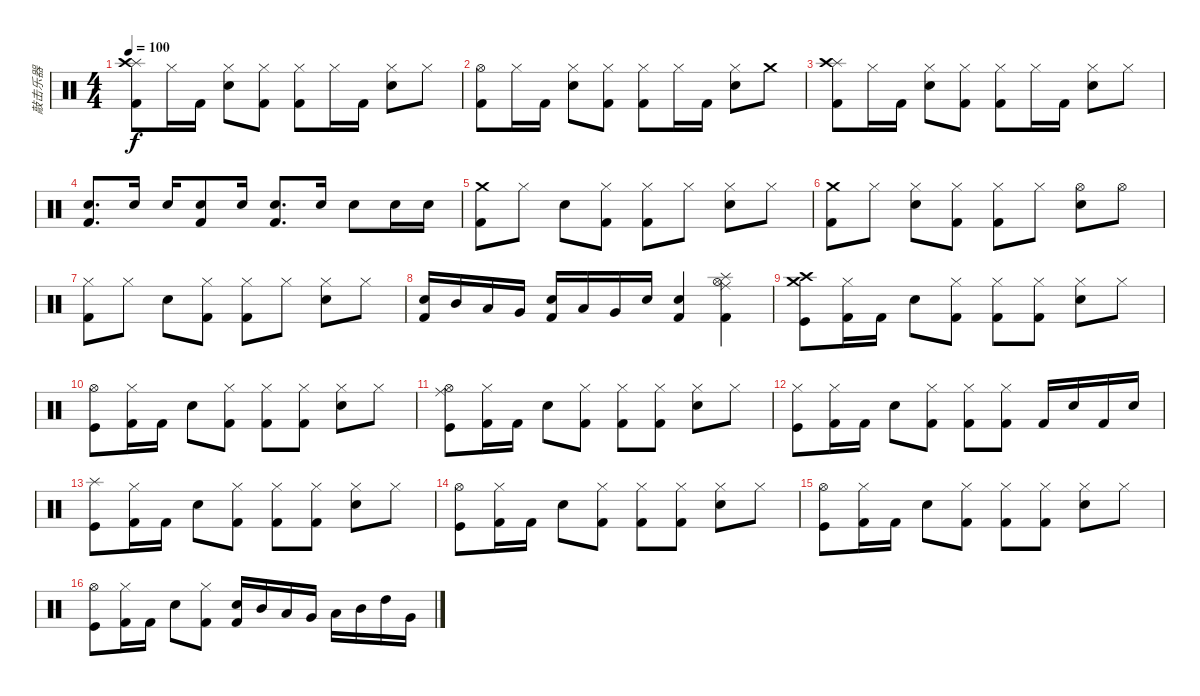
\track ("敲击乐器" "敲击乐器") {instrument percussion}
\staff {score}
\articulation defaults
\ts (4 4)
\tempo 100
\clef neutral
\ks c
("Splash (hit)" "Crash high (hit)" "Kick (hit) 2").8{dy f} "Hi-Hat (closed)".16 "Kick (hit) 2".16 ("Hi-Hat (closed)" "Electric Snare (hit)").8 ("Hi-Hat (closed)" "Kick (hit) 2").8 ("Hi-Hat (closed)" "Kick (hit) 2").8 "Hi-Hat (closed)".16 "Kick (hit) 2".16 ("Hi-Hat (closed)" "Electric Snare (hit)").8 "Hi-Hat (closed)".8 |
("Hi-Hat (open)" "Kick (hit) 2").8 "Hi-Hat (closed)".16 "Kick (hit) 2".16 ("Hi-Hat (closed)" "Electric Snare (hit)").8 ("Hi-Hat (closed)" "Kick (hit) 2").8 ("Hi-Hat (closed)" "Kick (hit) 2").8 "Hi-Hat (closed)".16 "Kick (hit) 2".16 ("Hi-Hat (closed)" "Electric Snare (hit)").8 "Crash medium (hit)".8 |
("Splash (hit)" "Crash high (hit)" "Kick (hit) 2").8 "Hi-Hat (closed)".16 "Kick (hit) 2".16 ("Hi-Hat (closed)" "Electric Snare (hit)").8 ("Hi-Hat (closed)" "Kick (hit) 2").8 ("Hi-Hat (closed)" "Kick (hit) 2").8 "Hi-Hat (closed)".16 "Kick (hit) 2".16 ("Hi-Hat (closed)" "Electric Snare (hit)").8 "Hi-Hat (closed)".8 |
("Electric Snare (hit)" "Kick (hit) 2").8{d} "Electric Snare (hit)".16 "Electric Snare (hit)".16 ("Electric Snare (hit)" "Kick (hit) 2").8 "Electric Snare (hit)".16 ("Electric Snare (hit)" "Kick (hit) 2").8{d} "Electric Snare (hit)".16 "Electric Snare (hit)".8 "Electric Snare (hit)".16 "Electric Snare (hit)".16 |
("Crash medium (hit)" "Kick (hit) 2").8 "Hi-Hat (closed)".8 "Electric Snare (hit)".8 ("Hi-Hat (closed)" "Kick (hit) 2").8 ("Hi-Hat (closed)" "Kick (hit) 2").8 "Hi-Hat (closed)".8 ("Hi-Hat (closed)" "Electric Snare (hit)").8 "Hi-Hat (closed)".8 |
("Crash medium (hit)" "Kick (hit) 2").8 "Hi-Hat (closed)".8 ("Hi-Hat (closed)" "Electric Snare (hit)").8 ("Hi-Hat (closed)" "Kick (hit) 2").8 ("Hi-Hat (closed)" "Kick (hit) 2").8 "Hi-Hat (closed)".8 ("Hi-Hat (open)" "Electric Snare (hit)").8 "Hi-Hat (open)".8 |
("Hi-Hat (closed)" "Kick (hit) 2").8 "Hi-Hat (closed)".8 "Electric Snare (hit)".8 ("Hi-Hat (closed)" "Kick (hit) 2").8 ("Hi-Hat (closed)" "Kick (hit) 2").8 "Hi-Hat (closed)".8 ("Hi-Hat (closed)" "Electric Snare (hit)").8 "Hi-Hat (closed)".8 |
("Electric Snare (hit)" "Kick (hit) 2").16 "Mid Tom (hit)".16 "Low Tom (hit)".16 "Very Low Tom (hit)".16 ("Electric Snare (hit)" "Kick (hit) 2").16 "Low Tom (hit)".16 "Very Low Tom (hit)".16 "Electric Snare (hit)".16 ("Electric Snare (hit)" "Kick (hit) 2").4 ("Splash (hit)" "Ride (middle)" "Hi-Hat (open)" "Kick (hit) 2").4 |
("Crash medium (hit)" "Crash high (hit)" "Kick (hit)").8 ("Hi-Hat (closed)" "Kick (hit) 2").16 "Kick (hit) 2".16 "Electric Snare (hit)".8 ("Hi-Hat (closed)" "Kick (hit) 2").8 ("Hi-Hat (closed)" "Kick (hit) 2").8 ("Hi-Hat (closed)" "Kick (hit) 2").8 ("Hi-Hat (closed)" "Electric Snare (hit)").8 "Hi-Hat (closed)".8 |
("Hi-Hat (open)" "Kick (hit)").8 ("Hi-Hat (closed)" "Kick (hit) 2").16 "Kick (hit) 2".16 "Electric Snare (hit)".8 ("Hi-Hat (closed)" "Kick (hit) 2").8 ("Hi-Hat (closed)" "Kick (hit) 2").8 ("Hi-Hat (closed)" "Kick (hit) 2").8 ("Hi-Hat (closed)" "Electric Snare (hit)").8 "Hi-Hat (closed)".8 |
("Ride (middle)" "Hi-Hat (open)" "Kick (hit)").8 ("Hi-Hat (closed)" "Kick (hit) 2").16 "Kick (hit) 2".16 "Electric Snare (hit)".8 ("Hi-Hat (closed)" "Kick (hit) 2").8 ("Hi-Hat (closed)" "Kick (hit) 2").8 ("Hi-Hat (closed)" "Kick (hit) 2").8 ("Hi-Hat (closed)" "Electric Snare (hit)").8 "Hi-Hat (closed)".8 |
("Hi-Hat (closed)" "Kick (hit)").8 ("Hi-Hat (closed)" "Kick (hit) 2").16 "Kick (hit) 2".16 "Electric Snare (hit)".8 ("Hi-Hat (closed)" "Kick (hit) 2").8 ("Hi-Hat (closed)" "Kick (hit) 2").8 ("Hi-Hat (closed)" "Kick (hit) 2").8 "Kick (hit) 2".16 "Electric Snare (hit)".16 "Kick (hit) 2".16 "Electric Snare (hit)".16 |
("Splash (hit)" "Kick (hit)").8 ("Hi-Hat (closed)" "Kick (hit) 2").16 "Kick (hit) 2".16 "Electric Snare (hit)".8 ("Hi-Hat (closed)" "Kick (hit) 2").8 ("Hi-Hat (closed)" "Kick (hit) 2").8 ("Hi-Hat (closed)" "Kick (hit) 2").8 ("Hi-Hat (closed)" "Electric Snare (hit)").8 "Hi-Hat (closed)".8 |
("Hi-Hat (open)" "Kick (hit)").8 ("Hi-Hat (closed)" "Kick (hit) 2").16 "Kick (hit) 2".16 "Electric Snare (hit)".8 ("Hi-Hat (closed)" "Kick (hit) 2").8 ("Hi-Hat (closed)" "Kick (hit) 2").8 ("Hi-Hat (closed)" "Kick (hit) 2").8 ("Hi-Hat (closed)" "Electric Snare (hit)").8 "Hi-Hat (closed)".8 |
("Hi-Hat (open)" "Kick (hit)").8 ("Hi-Hat (closed)" "Kick (hit) 2").16 "Kick (hit) 2".16 "Electric Snare (hit)".8 ("Hi-Hat (closed)" "Kick (hit) 2").8 ("Hi-Hat (closed)" "Kick (hit) 2").8 ("Hi-Hat (closed)" "Kick (hit) 2").8 ("Hi-Hat (closed)" "Electric Snare (hit)").8 "Hi-Hat (closed)".8 |
("Hi-Hat (open)" "Kick (hit)").8 ("Hi-Hat (closed)" "Kick (hit) 2").16 "Kick (hit) 2".16 "Electric Snare (hit)".8 ("Hi-Hat (closed)" "Kick (hit) 2").8 ("Electric Snare (hit)" "Kick (hit) 2").16 "Mid Tom (hit)".16 "Low Tom (hit)".16 "Very Low Tom (hit)".16 "Low Tom (hit)".16 "Mid Tom (hit)".16 "High Tom (hit)".16 "Very Low Tom (hit)".16
